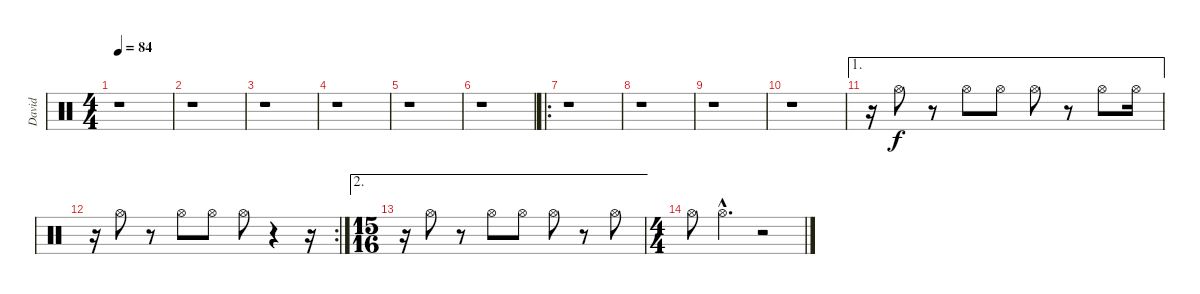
\track ("David" "David") {instrument percussion}
\staff {score}
\articulation defaults
\ts (4 4)
\tempo 84
\clef neutral
\ks c
r.1{dy f} |
r.1 |
r.1 |
r.1 |
r.1 |
r.1 |
\ro
r.1 |
r.1 |
r.1 |
r.1 |
\ae 1
r.16 "Hi-Hat (open)".8 r.8 "Hi-Hat (open)".8 "Hi-Hat (open)".8 "Hi-Hat (open)".8 r.8 "Hi-Hat (open)".8 "Hi-Hat (open)".16 |
\rc 2
r.16 "Hi-Hat (open)".8 r.8 "Hi-Hat (open)".8 "Hi-Hat (open)".8 "Hi-Hat (open)".8 r.4 r.16 |
\ae 2
\ts (15 16)
r.16 "Hi-Hat (open)".8 r.8 "Hi-Hat (open)".8 "Hi-Hat (open)".8 "Hi-Hat (open)".8 r.8 "Hi-Hat (open)".8 |
\ts (4 4)
"Hi-Hat (open)".8 "Hi-Hat (open)"{hac}.4{d} r.2
